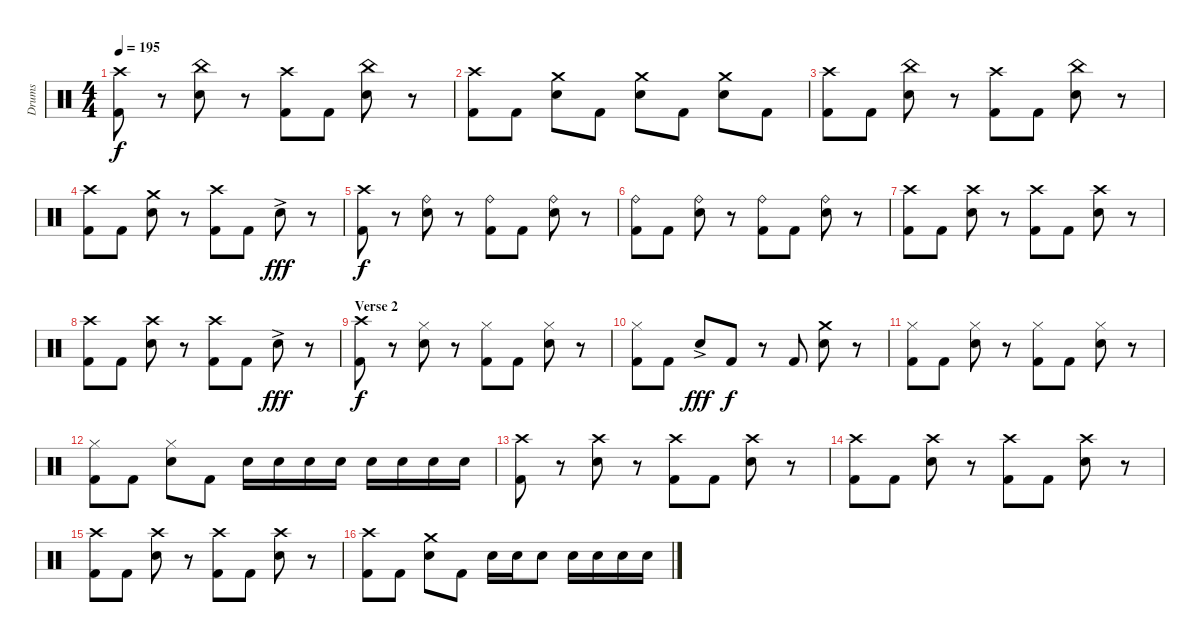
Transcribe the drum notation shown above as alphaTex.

\track ("Drums" "Drums") {instrument percussion}
\staff {score}
\articulation defaults
\ts (4 4)
\tempo 195
\clef neutral
\ks c
("Crash high (hit)" "Kick (hit) 2").8{dy f} r.8 ("China (hit)" "Electric Snare (hit)").8 r.8 ("Crash high (hit)" "Kick (hit) 2").8 "Kick (hit) 2".8 ("China (hit)" "Electric Snare (hit)").8 r.8 |
("Crash high (hit)" "Kick (hit) 2").8 "Kick (hit) 2".8 ("Crash medium (hit)" "Electric Snare (hit)").8 "Kick (hit) 2".8 ("Crash medium (hit)" "Electric Snare (hit)").8 "Kick (hit) 2".8 ("Crash medium (hit)" "Electric Snare (hit)").8 "Kick (hit) 2".8 |
("Crash high (hit)" "Kick (hit) 2").8 "Kick (hit) 2".8 ("China (hit)" "Electric Snare (hit)").8 r.8 ("Crash high (hit)" "Kick (hit) 2").8 "Kick (hit) 2".8 ("China (hit)" "Electric Snare (hit)").8 r.8 |
("Crash high (hit)" "Kick (hit) 2").8 "Kick (hit) 2".8 ("Crash medium (hit)" "Electric Snare (hit)").8 r.8 ("Crash high (hit)" "Kick (hit) 2").8 "Kick (hit) 2".8 "Electric Snare (hit)"{ac}.8{dy fff} r.8 |
("Crash high (hit)" "Kick (hit) 2").8{dy f} r.8 ("Ride (bell)" "Electric Snare (hit)").8 r.8 ("Ride (bell)" "Kick (hit) 2").8 "Kick (hit) 2".8 ("Ride (bell)" "Electric Snare (hit)").8 r.8 |
("Ride (bell)" "Kick (hit) 2").8 "Kick (hit) 2".8 ("Ride (bell)" "Electric Snare (hit)").8 r.8 ("Ride (bell)" "Kick (hit) 2").8 "Kick (hit) 2".8 ("Ride (bell)" "Electric Snare (hit)").8 r.8 |
("Crash high (hit)" "Kick (hit) 2").8 "Kick (hit) 2".8 ("Crash high (hit)" "Electric Snare (hit)").8 r.8 ("Crash high (hit)" "Kick (hit) 2").8 "Kick (hit) 2".8 ("Crash high (hit)" "Electric Snare (hit)").8 r.8 |
("Crash high (hit)" "Kick (hit) 2").8 "Kick (hit) 2".8 ("Crash high (hit)" "Electric Snare (hit)").8 r.8 ("Crash high (hit)" "Kick (hit) 2").8 "Kick (hit) 2".8 "Electric Snare (hit)"{ac}.8{dy fff} r.8 |
\section ("" "Verse 2")
("Crash high (hit)" "Kick (hit) 2").8{dy f} r.8 ("Hi-Hat (closed)" "Electric Snare (hit)").8 r.8 ("Hi-Hat (closed)" "Kick (hit) 2").8 "Kick (hit) 2".8 ("Hi-Hat (closed)" "Electric Snare (hit)").8 r.8 |
("Hi-Hat (closed)" "Kick (hit) 2").8 "Kick (hit) 2".8 "Electric Snare (hit)"{ac}.8{dy fff} "Kick (hit) 2".8{dy f} r.8 "Kick (hit) 2".8 ("Crash medium (hit)" "Electric Snare (hit)").8 r.8 |
("Hi-Hat (closed)" "Kick (hit) 2").8 "Kick (hit) 2".8 ("Hi-Hat (closed)" "Electric Snare (hit)").8 r.8 ("Hi-Hat (closed)" "Kick (hit) 2").8 "Kick (hit) 2".8 ("Hi-Hat (closed)" "Electric Snare (hit)").8 r.8 |
("Hi-Hat (closed)" "Kick (hit) 2").8 "Kick (hit) 2".8 ("Hi-Hat (closed)" "Electric Snare (hit)").8 "Kick (hit) 2".8 "Electric Snare (hit)".16 "Electric Snare (hit)".16 "Electric Snare (hit)".16 "Electric Snare (hit)".16 "Electric Snare (hit)".16 "Electric Snare (hit)".16 "Electric Snare (hit)".16 "Electric Snare (hit)".16 |
("Crash high (hit)" "Kick (hit) 2").8 r.8 ("Crash high (hit)" "Electric Snare (hit)").8 r.8 ("Crash high (hit)" "Kick (hit) 2").8 "Kick (hit) 2".8 ("Crash high (hit)" "Electric Snare (hit)").8 r.8 |
("Crash high (hit)" "Kick (hit) 2").8 "Kick (hit) 2".8 ("Crash high (hit)" "Electric Snare (hit)").8 r.8 ("Crash high (hit)" "Kick (hit) 2").8 "Kick (hit) 2".8 ("Crash high (hit)" "Electric Snare (hit)").8 r.8 |
("Crash high (hit)" "Kick (hit) 2").8 "Kick (hit) 2".8 ("Crash high (hit)" "Electric Snare (hit)").8 r.8 ("Crash high (hit)" "Kick (hit) 2").8 "Kick (hit) 2".8 ("Crash high (hit)" "Electric Snare (hit)").8 r.8 |
("Crash high (hit)" "Kick (hit) 2").8 "Kick (hit) 2".8 ("Crash medium (hit)" "Electric Snare (hit)").8 "Kick (hit) 2".8 "Electric Snare (hit)".16 "Electric Snare (hit)".16 "Electric Snare (hit)".8 "Electric Snare (hit)".16 "Electric Snare (hit)".16 "Electric Snare (hit)".16 "Electric Snare (hit)".16
